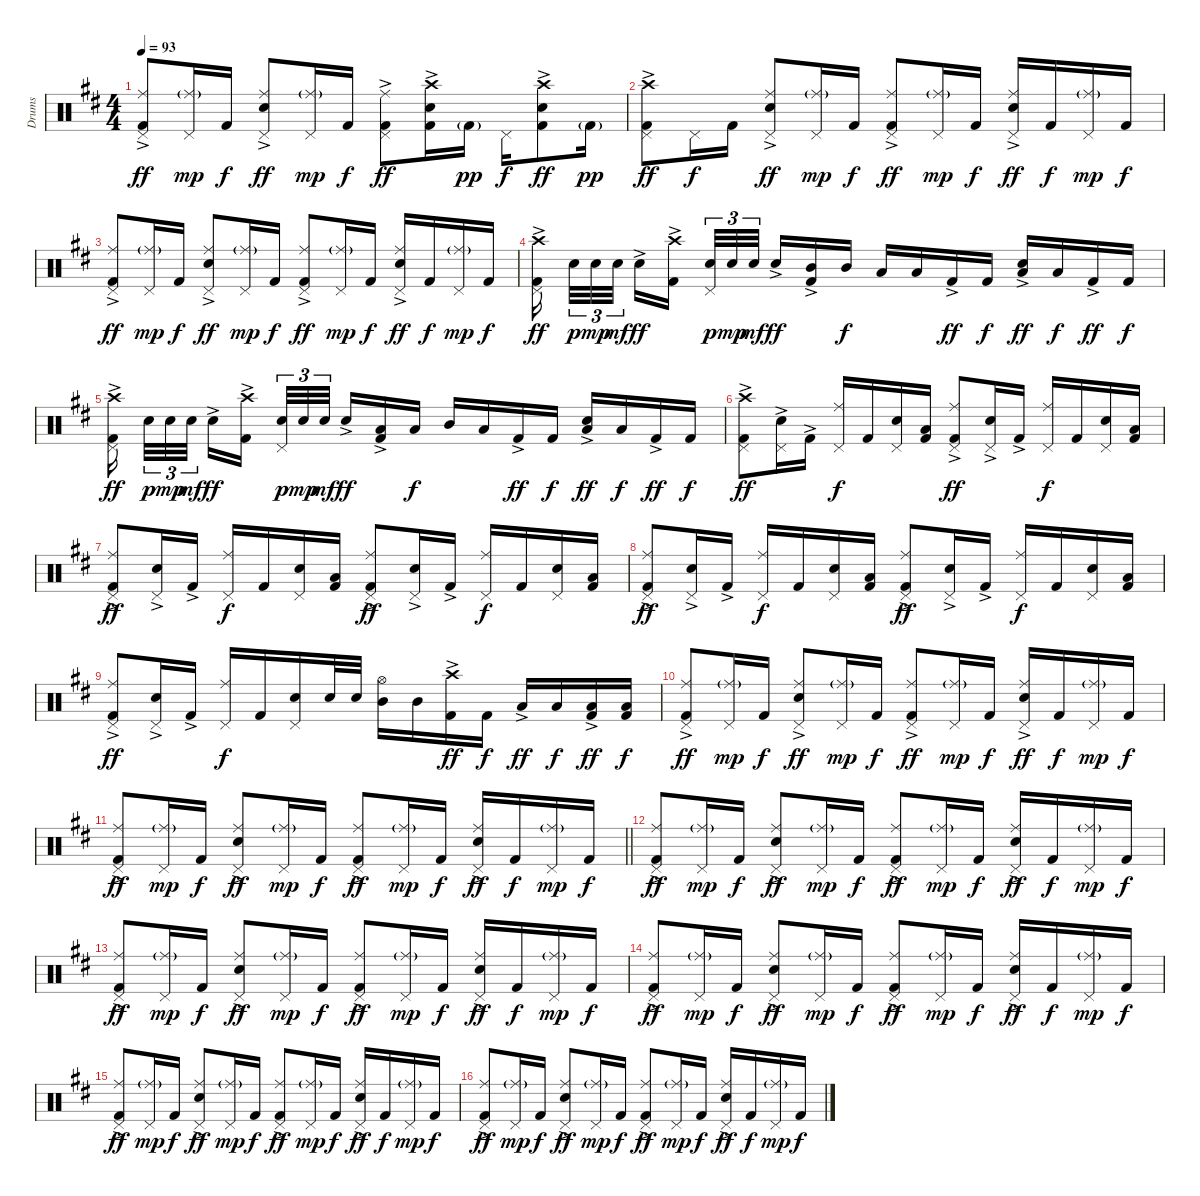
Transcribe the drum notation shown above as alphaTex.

\track ("Drums" "Drums") {instrument percussion}
\staff {score}
\articulation defaults
\ts (4 4)
\tempo 93
\clef neutral
\ks d
("Pedal Hi-Hat (hit)" "Ride (middle)" "Kick (hit) 2"{ac}).8{dy ff} ("Pedal Hi-Hat (hit)" "Ride (middle)"{g}).16{dy mp} "Kick (hit) 2".16{dy f} ("Pedal Hi-Hat (hit)" "Ride (middle)" "Snare (hit) 2"{ac}).8{dy ff} ("Pedal Hi-Hat (hit)" "Ride (middle)"{g}).16{dy mp} "Kick (hit) 2".16{dy f} ("Pedal Hi-Hat (hit)" "Ride (middle)" "Kick (hit) 2"{ac}).8{dy ff} ("Crash high (hit)" "Snare (hit) 2" "Kick (hit) 2"{ac}).16 "Kick (hit) 2"{g}.16{dy pp} "Pedal Hi-Hat (hit)".16{dy f} ("Crash high (hit)" "Snare (hit) 2" "Kick (hit) 2"{ac}).8{dy ff} "Kick (hit) 2"{g}.16{dy pp} |
("Pedal Hi-Hat (hit)" "Crash high (hit)" "Kick (hit) 2"{ac}).8{dy ff} "Pedal Hi-Hat (hit)".16{dy f} "Kick (hit) 2".16 ("Pedal Hi-Hat (hit)" "Ride (middle)" "Snare (hit) 2"{ac}).8{dy ff} ("Pedal Hi-Hat (hit)" "Ride (middle)"{g}).16{dy mp} "Kick (hit) 2".16{dy f} ("Pedal Hi-Hat (hit)" "Ride (middle)" "Kick (hit) 2"{ac}).8{dy ff} ("Pedal Hi-Hat (hit)" "Ride (middle)"{g}).16{dy mp} "Kick (hit) 2".16{dy f} ("Pedal Hi-Hat (hit)" "Ride (middle)" "Snare (hit) 2"{ac}).16{dy ff} "Kick (hit) 2".16{dy f} ("Pedal Hi-Hat (hit)" "Ride (middle)"{g}).16{dy mp} "Kick (hit) 2".16{dy f} |
("Pedal Hi-Hat (hit)" "Ride (middle)" "Kick (hit) 2"{ac}).8{dy ff} ("Pedal Hi-Hat (hit)" "Ride (middle)"{g}).16{dy mp} "Kick (hit) 2".16{dy f} ("Pedal Hi-Hat (hit)" "Ride (middle)" "Snare (hit) 2"{ac}).8{dy ff} ("Pedal Hi-Hat (hit)" "Ride (middle)"{g}).16{dy mp} "Kick (hit) 2".16{dy f} ("Pedal Hi-Hat (hit)" "Ride (middle)" "Kick (hit) 2"{ac}).8{dy ff} ("Pedal Hi-Hat (hit)" "Ride (middle)"{g}).16{dy mp} "Kick (hit) 2".16{dy f} ("Pedal Hi-Hat (hit)" "Ride (middle)" "Snare (hit) 2"{ac}).16{dy ff} "Kick (hit) 2".16{dy f} ("Pedal Hi-Hat (hit)" "Ride (middle)"{g}).16{dy mp} "Kick (hit) 2".16{dy f} |
("Crash high (hit)" "Pedal Hi-Hat (hit)" "Kick (hit) 2"{ac}).16{dy ff beam splitsecondary} "Snare (hit) 2".32{tu (3 2) dy p} "Snare (hit) 2".32{tu (3 2) dy mp} "Snare (hit) 2".32{tu (3 2) dy mf beam splitsecondary} "Snare (hit) 2"{ac}.16{dy ff} ("Crash high (hit)" "Kick (hit) 2"{ac}).16 ("Pedal Hi-Hat (hit)" "Snare (hit) 2").32{tu (3 2) dy p} "Snare (hit) 2".32{tu (3 2) dy mp} "Snare (hit) 2".32{tu (3 2) dy mf beam splitsecondary} "Snare (hit) 2"{ac}.16{dy ff} ("Mid Tom (hit)" "Kick (hit) 2"{ac}).16 "Mid Tom (hit)".16{dy f} "Low Tom (hit)".16 "Low Tom (hit)".16 "Kick (hit) 2"{ac}.16{dy ff} "Kick (hit) 2".16{dy f} ("Snare (hit) 2"{ac} "Low Floor Tom (hit)").16{dy ff} "Low Floor Tom (hit)".16{dy f} "Kick (hit) 2"{ac}.16{dy ff} "Kick (hit) 2".16{dy f} |
("Crash high (hit)" "Pedal Hi-Hat (hit)" "Kick (hit) 2"{ac}).16{dy ff beam splitsecondary} "Snare (hit) 2".32{tu (3 2) dy p} "Snare (hit) 2".32{tu (3 2) dy mp} "Snare (hit) 2".32{tu (3 2) dy mf beam splitsecondary} "Snare (hit) 2"{ac}.16{dy ff} ("Crash high (hit)" "Kick (hit) 2"{ac}).16 ("Pedal Hi-Hat (hit)" "Snare (hit) 2").32{tu (3 2) dy p} "Snare (hit) 2".32{tu (3 2) dy mp} "Snare (hit) 2".32{tu (3 2) dy mf beam splitsecondary} "Snare (hit) 2"{ac}.16{dy ff} ("Low Floor Tom (hit)" "Kick (hit) 2"{ac}).16 "Low Floor Tom (hit)".16{dy f} "Mid Tom (hit)".16 "Low Tom (hit)".16 "Kick (hit) 2"{ac}.16{dy ff} "Kick (hit) 2".16{dy f} ("Snare (hit) 2"{ac} "Low Floor Tom (hit)").16{dy ff} "Low Tom (hit)".16{dy f} "Kick (hit) 2"{ac}.16{dy ff} "Kick (hit) 2".16{dy f} |
("Crash high (hit)" "Pedal Hi-Hat (hit)" "Kick (hit) 2"{ac}).8{dy ff} ("Pedal Hi-Hat (hit)" "Snare (hit) 2"{ac}).16 "Kick (hit) 2"{ac}.16 ("Ride (middle)" "Pedal Hi-Hat (hit)").16{dy f} "Kick (hit) 2".16 ("Pedal Hi-Hat (hit)" "Snare (hit) 2").16 ("Low Tom (hit)" "Kick (hit) 2").16 ("Ride (middle)" "Pedal Hi-Hat (hit)" "Kick (hit) 2"{ac}).8{dy ff} ("Pedal Hi-Hat (hit)" "Snare (hit) 2"{ac}).16 "Kick (hit) 2"{ac}.16 ("Ride (middle)" "Pedal Hi-Hat (hit)").16{dy f} "Kick (hit) 2".16 ("Pedal Hi-Hat (hit)" "Snare (hit) 2").16 ("Low Floor Tom (hit)" "Kick (hit) 2").16 |
("Ride (middle)" "Pedal Hi-Hat (hit)" "Kick (hit) 2"{ac}).8{dy ff} ("Pedal Hi-Hat (hit)" "Snare (hit) 2"{ac}).16 "Kick (hit) 2"{ac}.16 ("Ride (middle)" "Pedal Hi-Hat (hit)").16{dy f} "Kick (hit) 2".16 ("Pedal Hi-Hat (hit)" "Snare (hit) 2").16 ("Low Floor Tom (hit)" "Kick (hit) 2").16 ("Ride (middle)" "Pedal Hi-Hat (hit)" "Kick (hit) 2"{ac}).8{dy ff} ("Pedal Hi-Hat (hit)" "Snare (hit) 2"{ac}).16 "Kick (hit) 2"{ac}.16 ("Ride (middle)" "Pedal Hi-Hat (hit)").16{dy f} "Kick (hit) 2".16 ("Pedal Hi-Hat (hit)" "Snare (hit) 2").16 ("Low Tom (hit)" "Kick (hit) 2").16 |
("Ride (middle)" "Pedal Hi-Hat (hit)" "Kick (hit) 2"{ac}).8{dy ff} ("Pedal Hi-Hat (hit)" "Snare (hit) 2"{ac}).16 "Kick (hit) 2"{ac}.16 ("Ride (middle)" "Pedal Hi-Hat (hit)").16{dy f} "Kick (hit) 2".16 ("Pedal Hi-Hat (hit)" "Snare (hit) 2").16 ("Low Tom (hit)" "Kick (hit) 2").16 ("Ride (middle)" "Pedal Hi-Hat (hit)" "Kick (hit) 2"{ac}).8{dy ff} ("Pedal Hi-Hat (hit)" "Snare (hit) 2"{ac}).16 "Kick (hit) 2"{ac}.16 ("Ride (middle)" "Pedal Hi-Hat (hit)").16{dy f} "Kick (hit) 2".16 ("Pedal Hi-Hat (hit)" "Snare (hit) 2").16 ("Low Floor Tom (hit)" "Kick (hit) 2").16 |
("Ride (middle)" "Pedal Hi-Hat (hit)" "Kick (hit) 2"{ac}).8{dy ff} ("Pedal Hi-Hat (hit)" "Snare (hit) 2"{ac}).16 "Kick (hit) 2"{ac}.16 ("Ride (middle)" "Pedal Hi-Hat (hit)").16{dy f} "Kick (hit) 2".16 ("Pedal Hi-Hat (hit)" "Snare (hit) 2").16 "Snare (hit) 2".32 "Snare (hit) 2".32 ("Hi-Hat (open)" "Mid Tom (hit)").16 "Mid Tom (hit)".16 ("Crash high (hit)" "Kick (hit) 2"{ac}).16{dy ff} "Kick (hit) 2".16{dy f} "Low Tom (hit)"{ac}.16{dy ff} "Low Tom (hit)".16{dy f} ("Low Floor Tom (hit)"{ac} "Kick (hit) 2"{ac}).16{dy ff} ("Low Floor Tom (hit)" "Kick (hit) 2").16{dy f} |
("Pedal Hi-Hat (hit)" "Ride (middle)" "Kick (hit) 2"{ac}).8{dy ff} ("Pedal Hi-Hat (hit)" "Ride (middle)"{g}).16{dy mp} "Kick (hit) 2".16{dy f} ("Pedal Hi-Hat (hit)" "Ride (middle)" "Snare (hit) 2"{ac}).8{dy ff} ("Pedal Hi-Hat (hit)" "Ride (middle)"{g}).16{dy mp} "Kick (hit) 2".16{dy f} ("Pedal Hi-Hat (hit)" "Ride (middle)" "Kick (hit) 2"{ac}).8{dy ff} ("Pedal Hi-Hat (hit)" "Ride (middle)"{g}).16{dy mp} "Kick (hit) 2".16{dy f} ("Pedal Hi-Hat (hit)" "Ride (middle)" "Snare (hit) 2"{ac}).16{dy ff} "Kick (hit) 2".16{dy f} ("Pedal Hi-Hat (hit)" "Ride (middle)"{g}).16{dy mp} "Kick (hit) 2".16{dy f} |
\barLineRight lightlight
("Pedal Hi-Hat (hit)" "Ride (middle)" "Kick (hit) 2"{ac}).8{dy ff} ("Pedal Hi-Hat (hit)" "Ride (middle)"{g}).16{dy mp} "Kick (hit) 2".16{dy f} ("Pedal Hi-Hat (hit)" "Ride (middle)" "Snare (hit) 2"{ac}).8{dy ff} ("Pedal Hi-Hat (hit)" "Ride (middle)"{g}).16{dy mp} "Kick (hit) 2".16{dy f} ("Pedal Hi-Hat (hit)" "Ride (middle)" "Kick (hit) 2"{ac}).8{dy ff} ("Pedal Hi-Hat (hit)" "Ride (middle)"{g}).16{dy mp} "Kick (hit) 2".16{dy f} ("Pedal Hi-Hat (hit)" "Ride (middle)" "Snare (hit) 2"{ac}).16{dy ff} "Kick (hit) 2".16{dy f} ("Pedal Hi-Hat (hit)" "Ride (middle)"{g}).16{dy mp} "Kick (hit) 2".16{dy f} |
("Pedal Hi-Hat (hit)" "Ride (middle)" "Kick (hit) 2"{ac}).8{dy ff} ("Pedal Hi-Hat (hit)" "Ride (middle)"{g}).16{dy mp} "Kick (hit) 2".16{dy f} ("Pedal Hi-Hat (hit)" "Ride (middle)" "Snare (hit) 2"{ac}).8{dy ff} ("Pedal Hi-Hat (hit)" "Ride (middle)"{g}).16{dy mp} "Kick (hit) 2".16{dy f} ("Pedal Hi-Hat (hit)" "Ride (middle)" "Kick (hit) 2"{ac}).8{dy ff} ("Pedal Hi-Hat (hit)" "Ride (middle)"{g}).16{dy mp} "Kick (hit) 2".16{dy f} ("Pedal Hi-Hat (hit)" "Ride (middle)" "Snare (hit) 2"{ac}).16{dy ff} "Kick (hit) 2".16{dy f} ("Pedal Hi-Hat (hit)" "Ride (middle)"{g}).16{dy mp} "Kick (hit) 2".16{dy f} |
("Pedal Hi-Hat (hit)" "Ride (middle)" "Kick (hit) 2"{ac}).8{dy ff} ("Pedal Hi-Hat (hit)" "Ride (middle)"{g}).16{dy mp} "Kick (hit) 2".16{dy f} ("Pedal Hi-Hat (hit)" "Ride (middle)" "Snare (hit) 2"{ac}).8{dy ff} ("Pedal Hi-Hat (hit)" "Ride (middle)"{g}).16{dy mp} "Kick (hit) 2".16{dy f} ("Pedal Hi-Hat (hit)" "Ride (middle)" "Kick (hit) 2"{ac}).8{dy ff} ("Pedal Hi-Hat (hit)" "Ride (middle)"{g}).16{dy mp} "Kick (hit) 2".16{dy f} ("Pedal Hi-Hat (hit)" "Ride (middle)" "Snare (hit) 2"{ac}).16{dy ff} "Kick (hit) 2".16{dy f} ("Pedal Hi-Hat (hit)" "Ride (middle)"{g}).16{dy mp} "Kick (hit) 2".16{dy f} |
("Pedal Hi-Hat (hit)" "Ride (middle)" "Kick (hit) 2"{ac}).8{dy ff} ("Pedal Hi-Hat (hit)" "Ride (middle)"{g}).16{dy mp} "Kick (hit) 2".16{dy f} ("Pedal Hi-Hat (hit)" "Ride (middle)" "Snare (hit) 2"{ac}).8{dy ff} ("Pedal Hi-Hat (hit)" "Ride (middle)"{g}).16{dy mp} "Kick (hit) 2".16{dy f} ("Pedal Hi-Hat (hit)" "Ride (middle)" "Kick (hit) 2"{ac}).8{dy ff} ("Pedal Hi-Hat (hit)" "Ride (middle)"{g}).16{dy mp} "Kick (hit) 2".16{dy f} ("Pedal Hi-Hat (hit)" "Ride (middle)" "Snare (hit) 2"{ac}).16{dy ff} "Kick (hit) 2".16{dy f} ("Pedal Hi-Hat (hit)" "Ride (middle)"{g}).16{dy mp} "Kick (hit) 2".16{dy f} |
("Pedal Hi-Hat (hit)" "Ride (middle)" "Kick (hit) 2"{ac}).8{dy ff} ("Pedal Hi-Hat (hit)" "Ride (middle)"{g}).16{dy mp} "Kick (hit) 2".16{dy f} ("Pedal Hi-Hat (hit)" "Ride (middle)" "Snare (hit) 2"{ac}).8{dy ff} ("Pedal Hi-Hat (hit)" "Ride (middle)"{g}).16{dy mp} "Kick (hit) 2".16{dy f} ("Pedal Hi-Hat (hit)" "Ride (middle)" "Kick (hit) 2"{ac}).8{dy ff} ("Pedal Hi-Hat (hit)" "Ride (middle)"{g}).16{dy mp} "Kick (hit) 2".16{dy f} ("Pedal Hi-Hat (hit)" "Ride (middle)" "Snare (hit) 2"{ac}).16{dy ff} "Kick (hit) 2".16{dy f} ("Pedal Hi-Hat (hit)" "Ride (middle)"{g}).16{dy mp} "Kick (hit) 2".16{dy f} |
("Pedal Hi-Hat (hit)" "Ride (middle)" "Kick (hit) 2"{ac}).8{dy ff} ("Pedal Hi-Hat (hit)" "Ride (middle)"{g}).16{dy mp} "Kick (hit) 2".16{dy f} ("Pedal Hi-Hat (hit)" "Ride (middle)" "Snare (hit) 2"{ac}).8{dy ff} ("Pedal Hi-Hat (hit)" "Ride (middle)"{g}).16{dy mp} "Kick (hit) 2".16{dy f} ("Pedal Hi-Hat (hit)" "Ride (middle)" "Kick (hit) 2"{ac}).8{dy ff} ("Pedal Hi-Hat (hit)" "Ride (middle)"{g}).16{dy mp} "Kick (hit) 2".16{dy f} ("Pedal Hi-Hat (hit)" "Ride (middle)" "Snare (hit) 2"{ac}).16{dy ff} "Kick (hit) 2".16{dy f} ("Pedal Hi-Hat (hit)" "Ride (middle)"{g}).16{dy mp} "Kick (hit) 2".16{dy f}
